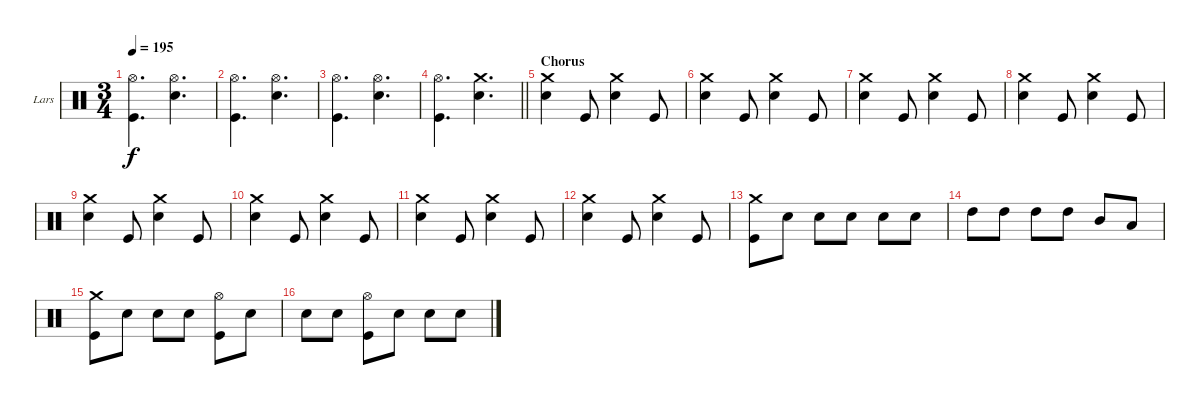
\bracketExtendMode groupsimilarinstruments
\firstSystemTrackNameOrientation horizontal
\otherSystemsTrackNameOrientation horizontal
\track ("Drumkit" "Lars") {instrument percussion}
\staff {score}
\articulation defaults
\ts (3 4)
\tempo 195
\clef neutral
\ks c
("Hi-Hat (open)" "Kick (hit)").4{d dy f} ("Hi-Hat (open)" "Snare (hit) 2").4{d} |
("Hi-Hat (open)" "Kick (hit)").4{d} ("Hi-Hat (open)" "Snare (hit) 2").4{d} |
("Hi-Hat (open)" "Kick (hit)").4{d} ("Hi-Hat (open)" "Snare (hit) 2").4{d} |
\barLineRight lightlight
("Hi-Hat (open)" "Kick (hit)").4{d} ("Crash medium (hit)" "Snare (hit) 2").4{d} |
\section ("" "Chorus")
("Crash medium (hit)" "Snare (hit) 2").4 "Kick (hit)".8 ("Crash medium (hit)" "Snare (hit) 2").4 "Kick (hit)".8 |
("Crash medium (hit)" "Snare (hit) 2").4 "Kick (hit)".8 ("Crash medium (hit)" "Snare (hit) 2").4 "Kick (hit)".8 |
("Crash medium (hit)" "Snare (hit) 2").4 "Kick (hit)".8 ("Crash medium (hit)" "Snare (hit) 2").4 "Kick (hit)".8 |
("Crash medium (hit)" "Snare (hit) 2").4 "Kick (hit)".8 ("Crash medium (hit)" "Snare (hit) 2").4 "Kick (hit)".8 |
("Crash medium (hit)" "Snare (hit) 2").4 "Kick (hit)".8 ("Crash medium (hit)" "Snare (hit) 2").4 "Kick (hit)".8 |
("Crash medium (hit)" "Snare (hit) 2").4 "Kick (hit)".8 ("Crash medium (hit)" "Snare (hit) 2").4 "Kick (hit)".8 |
("Crash medium (hit)" "Snare (hit) 2").4 "Kick (hit)".8 ("Crash medium (hit)" "Snare (hit) 2").4 "Kick (hit)".8 |
("Crash medium (hit)" "Snare (hit) 2").4 "Kick (hit)".8 ("Crash medium (hit)" "Snare (hit) 2").4 "Kick (hit)".8 |
("Crash medium (hit)" "Kick (hit)").8 "Snare (hit) 2".8 "Snare (hit) 2".8 "Snare (hit) 2".8 "Snare (hit) 2".8 "Snare (hit) 2".8 |
"High Tom (hit)".8 "High Tom (hit)".8 "High Tom (hit)".8 "High Tom (hit)".8 "Mid Tom (hit)".8 "Low Tom (hit)".8 |
("Crash medium (hit)" "Kick (hit)").8 "Snare (hit) 2".8 "Snare (hit) 2".8 "Snare (hit) 2".8 ("Hi-Hat (open)" "Kick (hit)").8 "Snare (hit) 2".8 |
"Snare (hit) 2".8 "Snare (hit) 2".8 ("Hi-Hat (open)" "Kick (hit)").8 "Snare (hit) 2".8 "Snare (hit) 2".8 "Snare (hit) 2".8
